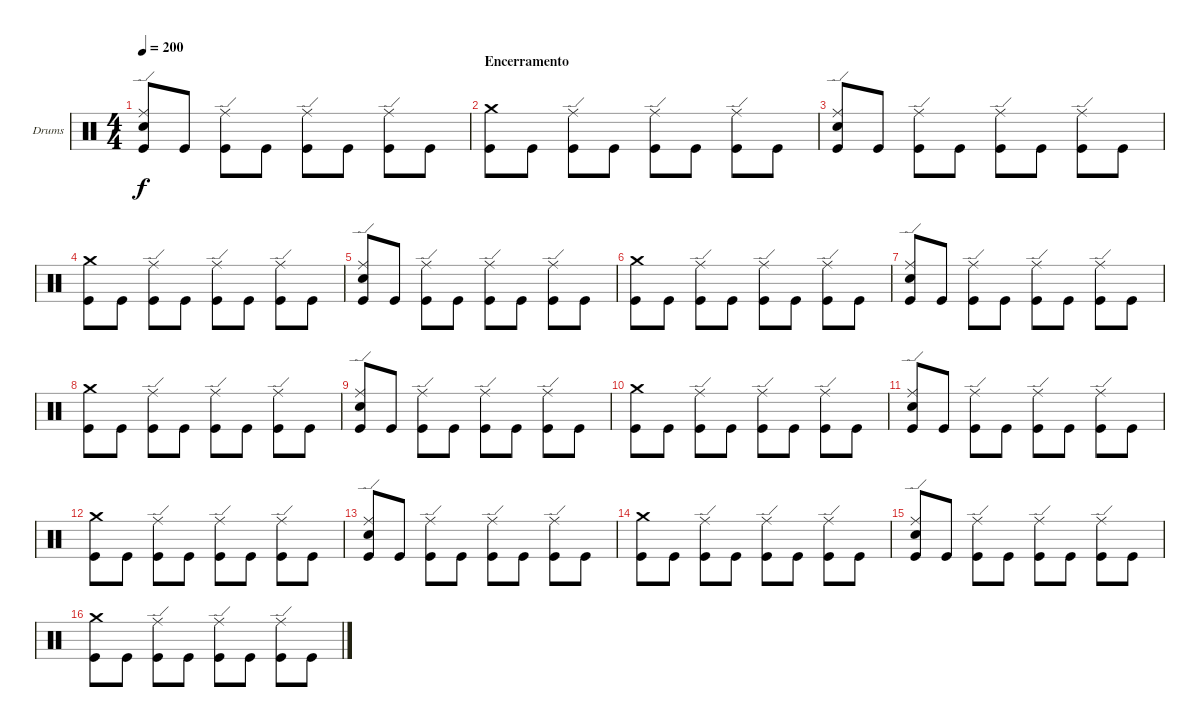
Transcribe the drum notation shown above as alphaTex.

\defaultSystemsLayout 4
\bracketExtendMode groupsimilarinstruments
\firstSystemTrackNameOrientation horizontal
\otherSystemsTrackNameOrientation horizontal
\track ("Drumkit" "Drums") {instrument percussion}
\staff {score}
\articulation defaults
\ts (4 4)
\tempo 200
\clef neutral
\ks c
("Kick (hit)" "Ride (edge)" "Snare (hit) 2").8{dy f} "Kick (hit)".8 ("Ride (edge)" "Kick (hit)").8 "Kick (hit)".8 ("Ride (edge)" "Kick (hit)").8 "Kick (hit)".8 ("Ride (edge)" "Kick (hit)").8 "Kick (hit)".8 |
\section ("" "Encerramento")
("Crash medium (hit)" "Kick (hit)").8 "Kick (hit)".8 ("Ride (edge)" "Kick (hit)").8 "Kick (hit)".8 ("Ride (edge)" "Kick (hit)").8 "Kick (hit)".8 ("Ride (edge)" "Kick (hit)").8 "Kick (hit)".8 |
("Kick (hit)" "Ride (edge)" "Snare (hit) 2").8 "Kick (hit)".8 ("Ride (edge)" "Kick (hit)").8 "Kick (hit)".8 ("Ride (edge)" "Kick (hit)").8 "Kick (hit)".8 ("Ride (edge)" "Kick (hit)").8 "Kick (hit)".8 |
("Crash medium (hit)" "Kick (hit)").8 "Kick (hit)".8 ("Ride (edge)" "Kick (hit)").8 "Kick (hit)".8 ("Ride (edge)" "Kick (hit)").8 "Kick (hit)".8 ("Ride (edge)" "Kick (hit)").8 "Kick (hit)".8 |
("Kick (hit)" "Ride (edge)" "Snare (hit) 2").8 "Kick (hit)".8 ("Ride (edge)" "Kick (hit)").8 "Kick (hit)".8 ("Ride (edge)" "Kick (hit)").8 "Kick (hit)".8 ("Ride (edge)" "Kick (hit)").8 "Kick (hit)".8 |
("Crash medium (hit)" "Kick (hit)").8 "Kick (hit)".8 ("Ride (edge)" "Kick (hit)").8 "Kick (hit)".8 ("Ride (edge)" "Kick (hit)").8 "Kick (hit)".8 ("Ride (edge)" "Kick (hit)").8 "Kick (hit)".8 |
("Kick (hit)" "Ride (edge)" "Snare (hit) 2").8 "Kick (hit)".8 ("Ride (edge)" "Kick (hit)").8 "Kick (hit)".8 ("Ride (edge)" "Kick (hit)").8 "Kick (hit)".8 ("Ride (edge)" "Kick (hit)").8 "Kick (hit)".8 |
("Crash medium (hit)" "Kick (hit)").8 "Kick (hit)".8 ("Ride (edge)" "Kick (hit)").8 "Kick (hit)".8 ("Ride (edge)" "Kick (hit)").8 "Kick (hit)".8 ("Ride (edge)" "Kick (hit)").8 "Kick (hit)".8 |
("Kick (hit)" "Ride (edge)" "Snare (hit) 2").8 "Kick (hit)".8 ("Ride (edge)" "Kick (hit)").8 "Kick (hit)".8 ("Ride (edge)" "Kick (hit)").8 "Kick (hit)".8 ("Ride (edge)" "Kick (hit)").8 "Kick (hit)".8 |
("Crash medium (hit)" "Kick (hit)").8 "Kick (hit)".8 ("Ride (edge)" "Kick (hit)").8 "Kick (hit)".8 ("Ride (edge)" "Kick (hit)").8 "Kick (hit)".8 ("Ride (edge)" "Kick (hit)").8 "Kick (hit)".8 |
("Kick (hit)" "Ride (edge)" "Snare (hit) 2").8 "Kick (hit)".8 ("Ride (edge)" "Kick (hit)").8 "Kick (hit)".8 ("Ride (edge)" "Kick (hit)").8 "Kick (hit)".8 ("Ride (edge)" "Kick (hit)").8 "Kick (hit)".8 |
("Crash medium (hit)" "Kick (hit)").8 "Kick (hit)".8 ("Ride (edge)" "Kick (hit)").8 "Kick (hit)".8 ("Ride (edge)" "Kick (hit)").8 "Kick (hit)".8 ("Ride (edge)" "Kick (hit)").8 "Kick (hit)".8 |
("Kick (hit)" "Ride (edge)" "Snare (hit) 2").8 "Kick (hit)".8 ("Ride (edge)" "Kick (hit)").8 "Kick (hit)".8 ("Ride (edge)" "Kick (hit)").8 "Kick (hit)".8 ("Ride (edge)" "Kick (hit)").8 "Kick (hit)".8 |
("Crash medium (hit)" "Kick (hit)").8 "Kick (hit)".8 ("Ride (edge)" "Kick (hit)").8 "Kick (hit)".8 ("Ride (edge)" "Kick (hit)").8 "Kick (hit)".8 ("Ride (edge)" "Kick (hit)").8 "Kick (hit)".8 |
("Kick (hit)" "Ride (edge)" "Snare (hit) 2").8 "Kick (hit)".8 ("Ride (edge)" "Kick (hit)").8 "Kick (hit)".8 ("Ride (edge)" "Kick (hit)").8 "Kick (hit)".8 ("Ride (edge)" "Kick (hit)").8 "Kick (hit)".8 |
("Crash medium (hit)" "Kick (hit)").8 "Kick (hit)".8 ("Ride (edge)" "Kick (hit)").8 "Kick (hit)".8 ("Ride (edge)" "Kick (hit)").8 "Kick (hit)".8 ("Ride (edge)" "Kick (hit)").8 "Kick (hit)".8
